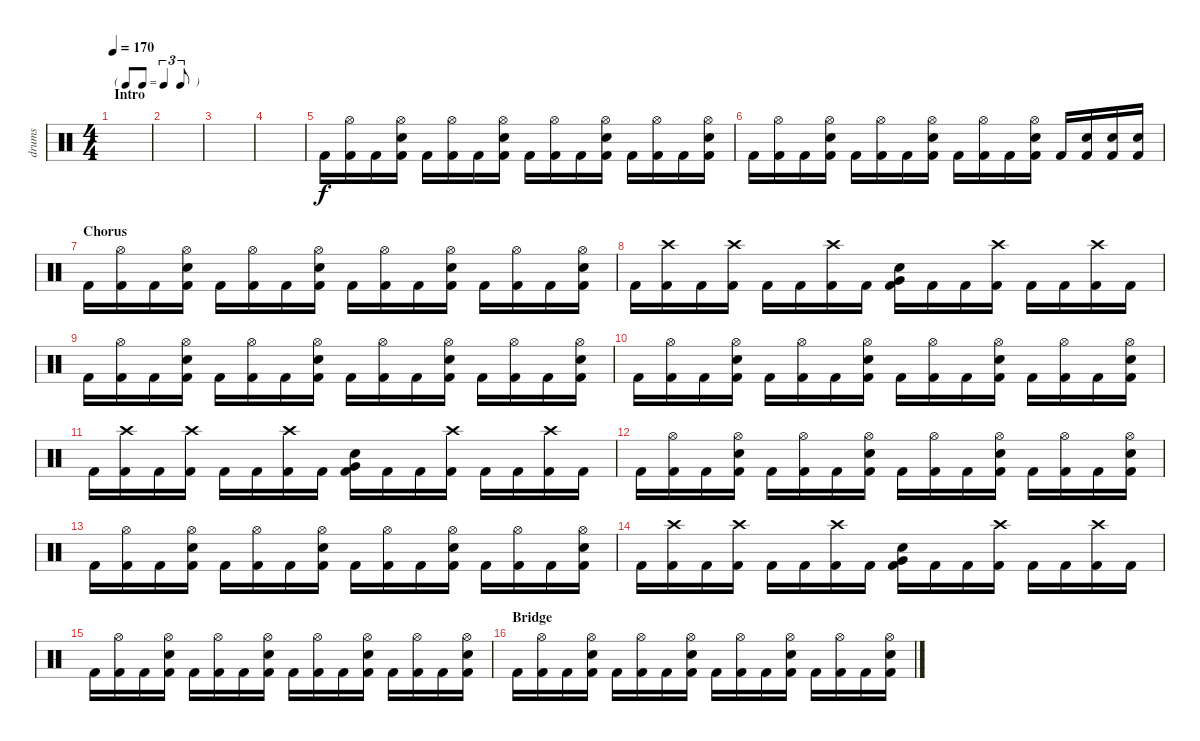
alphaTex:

\track ("drums" "drums") {instrument percussion}
\staff {score}
\articulation defaults
\ts (4 4)
\tf triplet8th
\section ("" "Intro")
\tempo 170
\clef neutral
\ks c
|
|
|
|
"Kick (hit) 2".16 ("Kick (hit) 2" "Hi-Hat (open)").16 "Kick (hit) 2".16 ("Kick (hit) 2" "Electric Snare (hit)" "Hi-Hat (open)").16 "Kick (hit) 2".16 ("Kick (hit) 2" "Hi-Hat (open)").16 "Kick (hit) 2".16 ("Kick (hit) 2" "Electric Snare (hit)" "Hi-Hat (open)").16 "Kick (hit) 2".16 ("Kick (hit) 2" "Hi-Hat (open)").16 "Kick (hit) 2".16 ("Kick (hit) 2" "Electric Snare (hit)" "Hi-Hat (open)").16 "Kick (hit) 2".16 ("Kick (hit) 2" "Hi-Hat (open)").16 "Kick (hit) 2".16 ("Kick (hit) 2" "Electric Snare (hit)" "Hi-Hat (open)").16 |
"Kick (hit) 2".16 ("Kick (hit) 2" "Hi-Hat (open)").16 "Kick (hit) 2".16 ("Kick (hit) 2" "Electric Snare (hit)" "Hi-Hat (open)").16 "Kick (hit) 2".16 ("Kick (hit) 2" "Hi-Hat (open)").16 "Kick (hit) 2".16 ("Kick (hit) 2" "Electric Snare (hit)" "Hi-Hat (open)").16 "Kick (hit) 2".16 ("Kick (hit) 2" "Hi-Hat (open)").16 "Kick (hit) 2".16 ("Kick (hit) 2" "Electric Snare (hit)" "Hi-Hat (open)").16 "Kick (hit) 2".16 ("Kick (hit) 2" "Snare (hit) 2").16 ("Kick (hit) 2" "Snare (hit) 2").16 ("Kick (hit) 2" "Snare (hit) 2").16 |
\section ("" "Chorus")
"Kick (hit) 2".16 ("Kick (hit) 2" "Hi-Hat (open)").16 "Kick (hit) 2".16 ("Kick (hit) 2" "Electric Snare (hit)" "Hi-Hat (open)").16 "Kick (hit) 2".16 ("Kick (hit) 2" "Hi-Hat (open)").16 "Kick (hit) 2".16 ("Kick (hit) 2" "Electric Snare (hit)" "Hi-Hat (open)").16 "Kick (hit) 2".16 ("Kick (hit) 2" "Hi-Hat (open)").16 "Kick (hit) 2".16 ("Kick (hit) 2" "Electric Snare (hit)" "Hi-Hat (open)").16 "Kick (hit) 2".16 ("Kick (hit) 2" "Hi-Hat (open)").16 "Kick (hit) 2".16 ("Kick (hit) 2" "Electric Snare (hit)" "Hi-Hat (open)").16 |
"Kick (hit) 2".16 ("Kick (hit) 2" "Crash high (hit)").16 "Kick (hit) 2".16 ("Kick (hit) 2" "Crash high (hit)").16 "Kick (hit) 2".16 "Kick (hit) 2".16 ("Kick (hit) 2" "Crash high (hit)").16 "Kick (hit) 2".16 ("Kick (hit) 2" "Electric Snare (hit)" "Very Low Tom (hit)").16 "Kick (hit) 2".16 "Kick (hit) 2".16 ("Kick (hit) 2" "Crash high (hit)").16 "Kick (hit) 2".16 "Kick (hit) 2".16 ("Kick (hit) 2" "Crash high (hit)").16 "Kick (hit) 2".16 |
"Kick (hit) 2".16 ("Kick (hit) 2" "Hi-Hat (open)").16 "Kick (hit) 2".16 ("Kick (hit) 2" "Electric Snare (hit)" "Hi-Hat (open)").16 "Kick (hit) 2".16 ("Kick (hit) 2" "Hi-Hat (open)").16 "Kick (hit) 2".16 ("Kick (hit) 2" "Electric Snare (hit)" "Hi-Hat (open)").16 "Kick (hit) 2".16 ("Kick (hit) 2" "Hi-Hat (open)").16 "Kick (hit) 2".16 ("Kick (hit) 2" "Electric Snare (hit)" "Hi-Hat (open)").16 "Kick (hit) 2".16 ("Kick (hit) 2" "Hi-Hat (open)").16 "Kick (hit) 2".16 ("Kick (hit) 2" "Electric Snare (hit)" "Hi-Hat (open)").16 |
"Kick (hit) 2".16 ("Kick (hit) 2" "Hi-Hat (open)").16 "Kick (hit) 2".16 ("Kick (hit) 2" "Electric Snare (hit)" "Hi-Hat (open)").16 "Kick (hit) 2".16 ("Kick (hit) 2" "Hi-Hat (open)").16 "Kick (hit) 2".16 ("Kick (hit) 2" "Electric Snare (hit)" "Hi-Hat (open)").16 "Kick (hit) 2".16 ("Kick (hit) 2" "Hi-Hat (open)").16 "Kick (hit) 2".16 ("Kick (hit) 2" "Electric Snare (hit)" "Hi-Hat (open)").16 "Kick (hit) 2".16 ("Kick (hit) 2" "Hi-Hat (open)").16 "Kick (hit) 2".16 ("Kick (hit) 2" "Electric Snare (hit)" "Hi-Hat (open)").16 |
"Kick (hit) 2".16 ("Kick (hit) 2" "Crash high (hit)").16 "Kick (hit) 2".16 ("Kick (hit) 2" "Crash high (hit)").16 "Kick (hit) 2".16 "Kick (hit) 2".16 ("Kick (hit) 2" "Crash high (hit)").16 "Kick (hit) 2".16 ("Kick (hit) 2" "Electric Snare (hit)" "Very Low Tom (hit)").16 "Kick (hit) 2".16 "Kick (hit) 2".16 ("Kick (hit) 2" "Crash high (hit)").16 "Kick (hit) 2".16 "Kick (hit) 2".16 ("Kick (hit) 2" "Crash high (hit)").16 "Kick (hit) 2".16 |
"Kick (hit) 2".16 ("Kick (hit) 2" "Hi-Hat (open)").16 "Kick (hit) 2".16 ("Kick (hit) 2" "Electric Snare (hit)" "Hi-Hat (open)").16 "Kick (hit) 2".16 ("Kick (hit) 2" "Hi-Hat (open)").16 "Kick (hit) 2".16 ("Kick (hit) 2" "Electric Snare (hit)" "Hi-Hat (open)").16 "Kick (hit) 2".16 ("Kick (hit) 2" "Hi-Hat (open)").16 "Kick (hit) 2".16 ("Kick (hit) 2" "Electric Snare (hit)" "Hi-Hat (open)").16 "Kick (hit) 2".16 ("Kick (hit) 2" "Hi-Hat (open)").16 "Kick (hit) 2".16 ("Kick (hit) 2" "Electric Snare (hit)" "Hi-Hat (open)").16 |
"Kick (hit) 2".16 ("Kick (hit) 2" "Hi-Hat (open)").16 "Kick (hit) 2".16 ("Kick (hit) 2" "Electric Snare (hit)" "Hi-Hat (open)").16 "Kick (hit) 2".16 ("Kick (hit) 2" "Hi-Hat (open)").16 "Kick (hit) 2".16 ("Kick (hit) 2" "Electric Snare (hit)" "Hi-Hat (open)").16 "Kick (hit) 2".16 ("Kick (hit) 2" "Hi-Hat (open)").16 "Kick (hit) 2".16 ("Kick (hit) 2" "Electric Snare (hit)" "Hi-Hat (open)").16 "Kick (hit) 2".16 ("Kick (hit) 2" "Hi-Hat (open)").16 "Kick (hit) 2".16 ("Kick (hit) 2" "Electric Snare (hit)" "Hi-Hat (open)").16 |
"Kick (hit) 2".16 ("Kick (hit) 2" "Crash high (hit)").16 "Kick (hit) 2".16 ("Kick (hit) 2" "Crash high (hit)").16 "Kick (hit) 2".16 "Kick (hit) 2".16 ("Kick (hit) 2" "Crash high (hit)").16 "Kick (hit) 2".16 ("Kick (hit) 2" "Electric Snare (hit)" "Very Low Tom (hit)").16 "Kick (hit) 2".16 "Kick (hit) 2".16 ("Kick (hit) 2" "Crash high (hit)").16 "Kick (hit) 2".16 "Kick (hit) 2".16 ("Kick (hit) 2" "Crash high (hit)").16 "Kick (hit) 2".16 |
"Kick (hit) 2".16 ("Kick (hit) 2" "Hi-Hat (open)").16 "Kick (hit) 2".16 ("Kick (hit) 2" "Electric Snare (hit)" "Hi-Hat (open)").16 "Kick (hit) 2".16 ("Kick (hit) 2" "Hi-Hat (open)").16 "Kick (hit) 2".16 ("Kick (hit) 2" "Electric Snare (hit)" "Hi-Hat (open)").16 "Kick (hit) 2".16 ("Kick (hit) 2" "Hi-Hat (open)").16 "Kick (hit) 2".16 ("Kick (hit) 2" "Electric Snare (hit)" "Hi-Hat (open)").16 "Kick (hit) 2".16 ("Kick (hit) 2" "Hi-Hat (open)").16 "Kick (hit) 2".16 ("Kick (hit) 2" "Electric Snare (hit)" "Hi-Hat (open)").16 |
\section ("" "Bridge")
"Kick (hit) 2".16 ("Kick (hit) 2" "Hi-Hat (open)").16 "Kick (hit) 2".16 ("Kick (hit) 2" "Electric Snare (hit)" "Hi-Hat (open)").16 "Kick (hit) 2".16 ("Kick (hit) 2" "Hi-Hat (open)").16 "Kick (hit) 2".16 ("Kick (hit) 2" "Electric Snare (hit)" "Hi-Hat (open)").16 "Kick (hit) 2".16 ("Kick (hit) 2" "Hi-Hat (open)").16 "Kick (hit) 2".16 ("Kick (hit) 2" "Electric Snare (hit)" "Hi-Hat (open)").16 "Kick (hit) 2".16 ("Kick (hit) 2" "Hi-Hat (open)").16 "Kick (hit) 2".16 ("Kick (hit) 2" "Electric Snare (hit)" "Hi-Hat (open)").16
